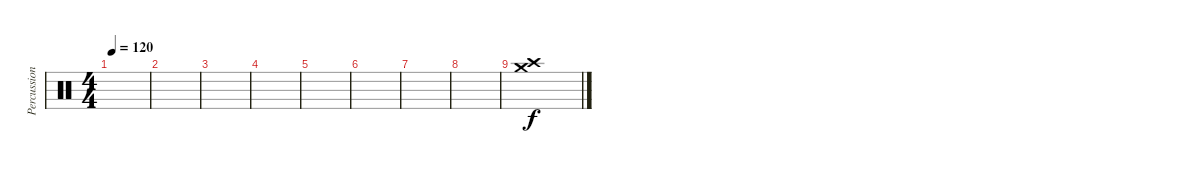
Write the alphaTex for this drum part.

\track ("Percussion" "Percussion") {instrument percussion}
\staff {score}
\articulation defaults
\ts (4 4)
\tempo 120
\clef neutral
\ks c
|
|
|
|
|
|
|
|
("Crash medium (hit)" "Crash high (hit)").1
